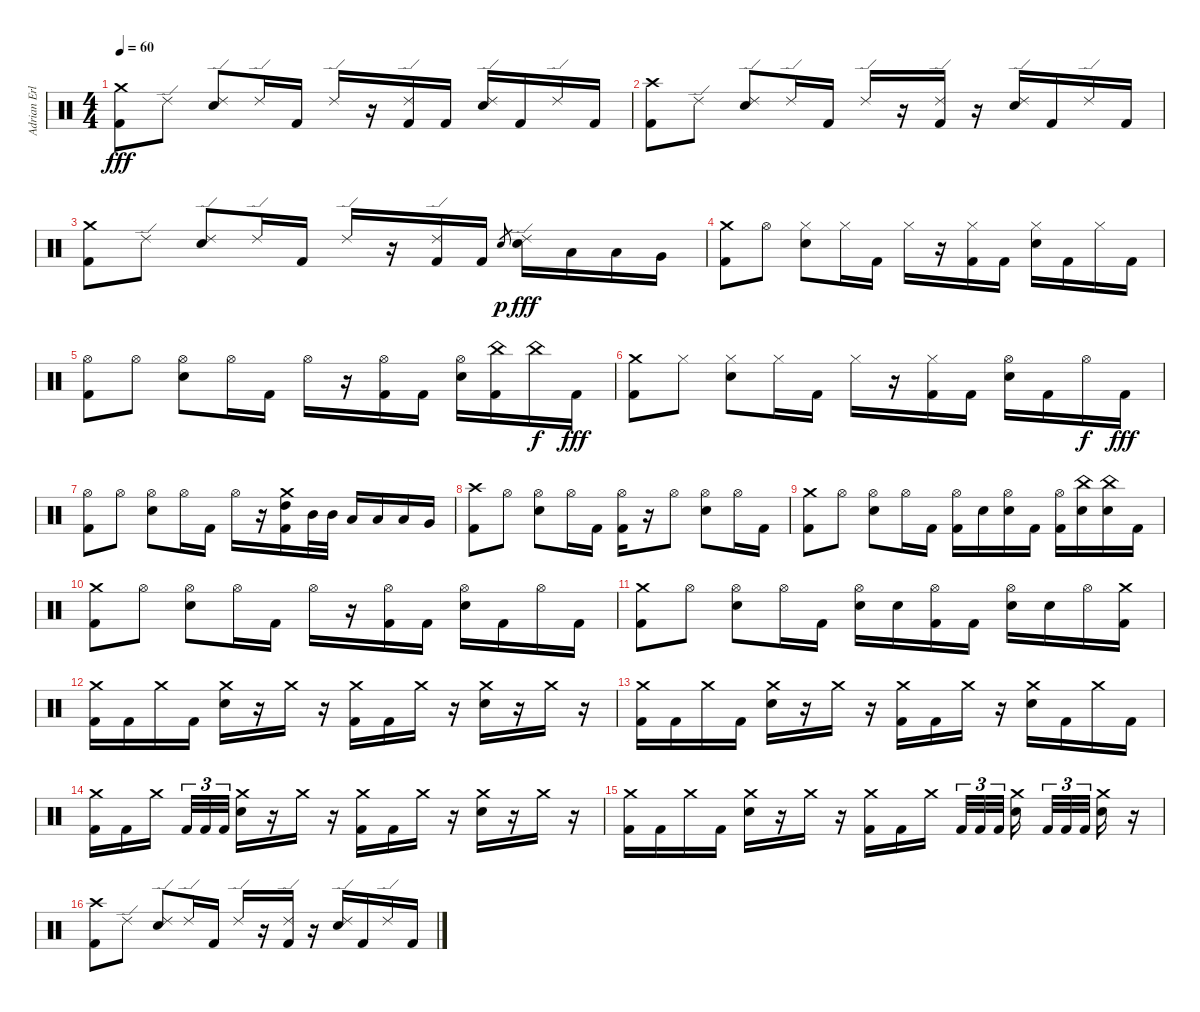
\track ("Adrian Erlandsson" "Adrian Erl") {instrument percussion}
\staff {score}
\articulation defaults
\ts (4 4)
\tempo 60
\clef neutral
\ks c
("Crash medium (hit)" "Kick (hit) 2").8{dy fff} "Ride (edge) 2".8 ("Ride (edge) 2" "Electric Snare (hit)").8 "Ride (edge) 2".16 "Kick (hit) 2".16 "Ride (edge) 2".16 r.16 ("Ride (edge) 2" "Kick (hit) 2").16 "Kick (hit) 2".16 ("Ride (edge) 2" "Electric Snare (hit)").16 "Kick (hit) 2".16 "Ride (edge) 2".16 "Kick (hit) 2".16 |
("Crash high (hit)" "Kick (hit) 2").8 "Ride (edge) 2".8 ("Ride (edge) 2" "Electric Snare (hit)").8 "Ride (edge) 2".16 "Kick (hit) 2".16 "Ride (edge) 2".16 r.16 ("Ride (edge) 2" "Kick (hit) 2").16 r.16 ("Ride (edge) 2" "Electric Snare (hit)").16 "Kick (hit) 2".16 "Ride (edge) 2".16 "Kick (hit) 2".16 |
("Crash medium (hit)" "Kick (hit) 2").8 "Ride (edge) 2".8 ("Ride (edge) 2" "Electric Snare (hit)").8 "Ride (edge) 2".16 "Kick (hit) 2".16 "Ride (edge) 2".16 r.16 ("Ride (edge) 2" "Kick (hit) 2").16 "Kick (hit) 2".16 "Electric Snare (hit)".8{gr dy p} ("Ride (edge) 2" "Electric Snare (hit)").16{dy fff} "Low Tom (hit)".16 "Low Tom (hit)".16 "Very Low Tom (hit)".16 |
("Crash medium (hit)" "Kick (hit) 2").8 "Hi-Hat (open)".8 ("Hi-Hat (closed)" "Electric Snare (hit)").8 "Hi-Hat (closed)".16 "Kick (hit) 2".16 "Hi-Hat (closed)".16 r.16 ("Hi-Hat (closed)" "Kick (hit) 2").16 "Kick (hit) 2".16 ("Hi-Hat (closed)" "Electric Snare (hit)").16 "Kick (hit) 2".16 "Hi-Hat (closed)".16 "Kick (hit) 2".16 |
("Hi-Hat (open)" "Kick (hit) 2").8 "Hi-Hat (open)".8 ("Hi-Hat (open)" "Electric Snare (hit)").8 "Hi-Hat (open)".16 "Kick (hit) 2".16 "Hi-Hat (open)".16 r.16 ("Hi-Hat (open)" "Kick (hit) 2").16 "Kick (hit) 2".16 ("Hi-Hat (open)" "Electric Snare (hit)").16 ("China (hit)" "Kick (hit) 2").16 "China (hit)".16{dy f} "Kick (hit) 2".16{dy fff} |
("Crash medium (hit)" "Kick (hit) 2").8 "Hi-Hat (closed)".8 ("Hi-Hat (closed)" "Electric Snare (hit)").8 "Hi-Hat (closed)".16 "Kick (hit) 2".16 "Hi-Hat (closed)".16 r.16 ("Hi-Hat (closed)" "Kick (hit) 2").16 "Kick (hit) 2".16 ("Hi-Hat (open)" "Electric Snare (hit)").16 "Kick (hit) 2".16 "Hi-Hat (open)".16{dy f} "Kick (hit) 2".16{dy fff} |
("Hi-Hat (open)" "Kick (hit) 2").8 "Hi-Hat (open)".8 ("Hi-Hat (open)" "Electric Snare (hit)").8 "Hi-Hat (open)".16 "Kick (hit) 2".16 "Hi-Hat (open)".16 r.16 ("Crash medium (hit)" "High Tom (hit)" "Kick (hit) 2").16 "Mid Tom (hit)".32 "Mid Tom (hit)".32 "Low Tom (hit)".16 "Low Tom (hit)".16 "Low Tom (hit)".16 "Very Low Tom (hit)".16 |
("Crash high (hit)" "Kick (hit) 2").8 "Hi-Hat (open)".8 ("Hi-Hat (open)" "Electric Snare (hit)").8 "Hi-Hat (open)".16 "Kick (hit) 2".16 ("Hi-Hat (open)" "Kick (hit) 2").16 r.16 "Hi-Hat (open)".8 ("Hi-Hat (open)" "Electric Snare (hit)").8 "Hi-Hat (open)".16 "Kick (hit) 2".16 |
("Crash medium (hit)" "Kick (hit) 2").8 "Hi-Hat (open)".8 ("Hi-Hat (open)" "Electric Snare (hit)").8 "Hi-Hat (open)".16 "Kick (hit) 2".16 ("Hi-Hat (open)" "Kick (hit) 2").16 "Electric Snare (hit)".16 ("Hi-Hat (open)" "Electric Snare (hit)").16 "Kick (hit) 2".16 ("Hi-Hat (open)" "Kick (hit) 2").16 ("China (hit)" "Electric Snare (hit)").16 ("China (hit)" "Electric Snare (hit)").16 "Kick (hit) 2".16 |
("Crash medium (hit)" "Kick (hit) 2").8 "Hi-Hat (open)".8 ("Hi-Hat (open)" "Electric Snare (hit)").8 "Hi-Hat (open)".16 "Kick (hit) 2".16 "Hi-Hat (open)".16 r.16 ("Hi-Hat (open)" "Kick (hit) 2").16 "Kick (hit) 2".16 ("Hi-Hat (open)" "Electric Snare (hit)").16 "Kick (hit) 2".16 "Hi-Hat (open)".16 "Kick (hit) 2".16 |
("Crash medium (hit)" "Kick (hit) 2").8 "Hi-Hat (open)".8 ("Hi-Hat (open)" "Electric Snare (hit)").8 "Hi-Hat (open)".16 "Kick (hit) 2".16 ("Hi-Hat (open)" "Electric Snare (hit)").16 "Electric Snare (hit)".16 ("Hi-Hat (open)" "Kick (hit) 2").16 "Kick (hit) 2".16 ("Hi-Hat (open)" "Electric Snare (hit)").16 "Electric Snare (hit)".16 "Hi-Hat (open)".16 ("Crash medium (hit)" "Kick (hit) 2").16 |
("Crash medium (hit)" "Kick (hit) 2").16 "Kick (hit) 2".16 "Crash medium (hit)".16 "Kick (hit) 2".16 ("Crash medium (hit)" "Electric Snare (hit)").16 r.16 "Crash medium (hit)".16 r.16 ("Crash medium (hit)" "Kick (hit) 2").16 "Kick (hit) 2".16 "Crash medium (hit)".16 r.16 ("Crash medium (hit)" "Electric Snare (hit)").16 r.16 "Crash medium (hit)".16 r.16 |
("Crash medium (hit)" "Kick (hit) 2").16 "Kick (hit) 2".16 "Crash medium (hit)".16 "Kick (hit) 2".16 ("Crash medium (hit)" "Electric Snare (hit)").16 r.16 "Crash medium (hit)".16 r.16 ("Crash medium (hit)" "Kick (hit) 2").16 "Kick (hit) 2".16 "Crash medium (hit)".16 r.16 ("Crash medium (hit)" "Electric Snare (hit)").16 "Kick (hit) 2".16 "Crash medium (hit)".16 "Kick (hit) 2".16 |
("Crash medium (hit)" "Kick (hit) 2").16 "Kick (hit) 2".16 "Crash medium (hit)".16{beam splitsecondary} "Kick (hit) 2".32{tu (3 2)} "Kick (hit) 2".32{tu (3 2)} "Kick (hit) 2".32{tu (3 2)} ("Crash medium (hit)" "Electric Snare (hit)").16 r.16 "Crash medium (hit)".16 r.16 ("Crash medium (hit)" "Kick (hit) 2").16 "Kick (hit) 2".16 "Crash medium (hit)".16 r.16 ("Crash medium (hit)" "Electric Snare (hit)").16 r.16 "Crash medium (hit)".16 r.16 |
("Crash medium (hit)" "Kick (hit) 2").16 "Kick (hit) 2".16 "Crash medium (hit)".16 "Kick (hit) 2".16 ("Crash medium (hit)" "Electric Snare (hit)").16 r.16 "Crash medium (hit)".16 r.16 ("Crash medium (hit)" "Kick (hit) 2").16 "Kick (hit) 2".16 "Crash medium (hit)".16{beam splitsecondary} "Kick (hit) 2".32{tu (3 2)} "Kick (hit) 2".32{tu (3 2)} "Kick (hit) 2".32{tu (3 2)} ("Crash medium (hit)" "Electric Snare (hit)").16{beam splitsecondary} "Kick (hit) 2".32{tu (3 2)} "Kick (hit) 2".32{tu (3 2)} "Kick (hit) 2".32{tu (3 2) beam splitsecondary} ("Crash medium (hit)" "Electric Snare (hit)").16 r.16 |
("Crash high (hit)" "Kick (hit) 2").8 "Ride (edge) 2".8 ("Ride (edge) 2" "Electric Snare (hit)").8 "Ride (edge) 2".16 "Kick (hit) 2".16 "Ride (edge) 2".16 r.16 ("Ride (edge) 2" "Kick (hit) 2").16 r.16 ("Ride (edge) 2" "Electric Snare (hit)").16 "Kick (hit) 2".16 "Ride (edge) 2".16 "Kick (hit) 2".16
